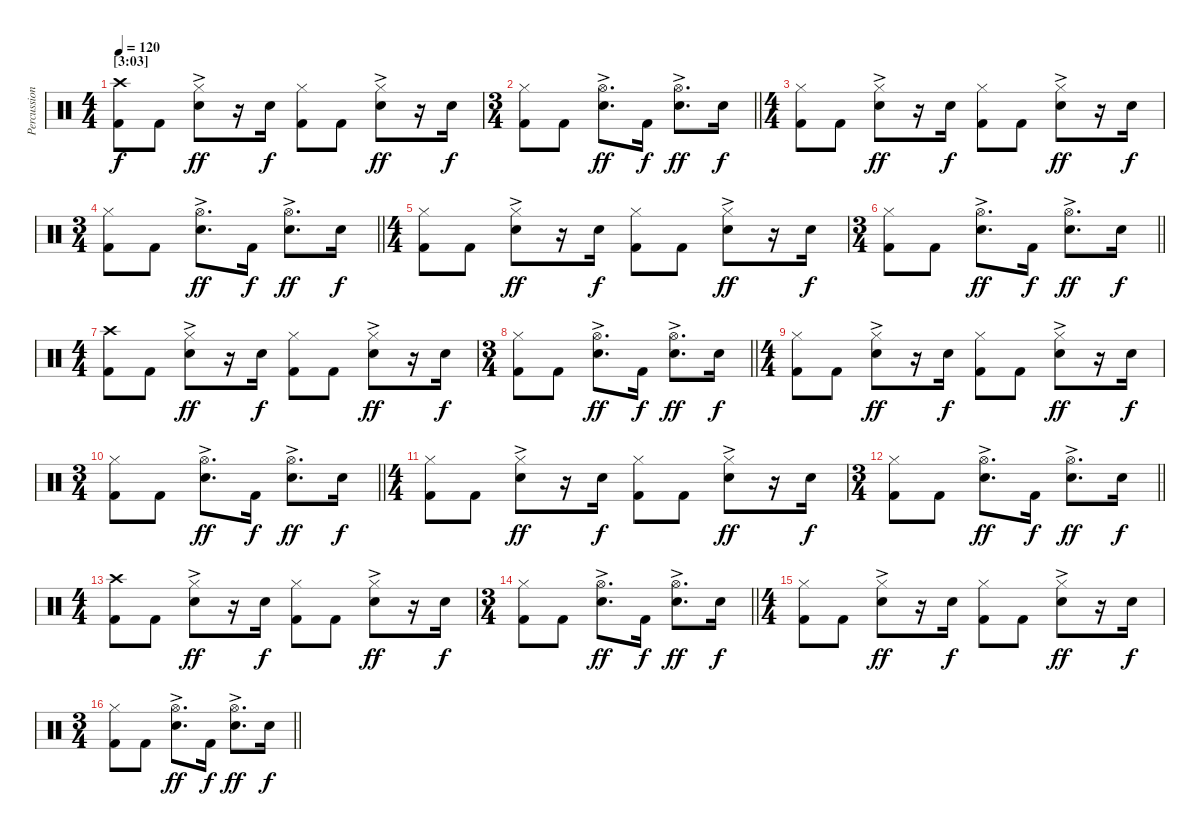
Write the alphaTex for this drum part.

\track ("Percussion" "Percussion") {instrument percussion}
\staff {score}
\articulation defaults
\ts (4 4)
\section ("" "[3:03]")
\tempo 120
\clef neutral
\ks c
("Crash high (hit)" "Kick (hit) 2").8{dy f} "Kick (hit) 2".8 ("Hi-Hat (closed)" "Electric Snare (hit)"{ac}).8{dy ff} r.16 "Electric Snare (hit)".16{dy f} ("Hi-Hat (closed)" "Kick (hit) 2").8 "Kick (hit) 2".8 ("Hi-Hat (closed)" "Electric Snare (hit)"{ac}).8{dy ff} r.16 "Electric Snare (hit)".16{dy f} |
\ts (3 4)
\barLineRight lightlight
("Hi-Hat (closed)" "Kick (hit) 2").8 "Kick (hit) 2".8 ("Hi-Hat (open)" "Electric Snare (hit)"{ac}).8{d dy ff} "Kick (hit) 2".16{dy f} ("Hi-Hat (open)" "Electric Snare (hit)"{ac}).8{d dy ff} "Electric Snare (hit)".16{dy f} |
\ts (4 4)
("Hi-Hat (closed)" "Kick (hit) 2").8 "Kick (hit) 2".8 ("Hi-Hat (closed)" "Electric Snare (hit)"{ac}).8{dy ff} r.16 "Electric Snare (hit)".16{dy f} ("Hi-Hat (closed)" "Kick (hit) 2").8 "Kick (hit) 2".8 ("Hi-Hat (closed)" "Electric Snare (hit)"{ac}).8{dy ff} r.16 "Electric Snare (hit)".16{dy f} |
\ts (3 4)
\barLineRight lightlight
("Hi-Hat (closed)" "Kick (hit) 2").8 "Kick (hit) 2".8 ("Hi-Hat (open)" "Electric Snare (hit)"{ac}).8{d dy ff} "Kick (hit) 2".16{dy f} ("Hi-Hat (open)" "Electric Snare (hit)"{ac}).8{d dy ff} "Electric Snare (hit)".16{dy f} |
\ts (4 4)
("Hi-Hat (closed)" "Kick (hit) 2").8 "Kick (hit) 2".8 ("Hi-Hat (closed)" "Electric Snare (hit)"{ac}).8{dy ff} r.16 "Electric Snare (hit)".16{dy f} ("Hi-Hat (closed)" "Kick (hit) 2").8 "Kick (hit) 2".8 ("Hi-Hat (closed)" "Electric Snare (hit)"{ac}).8{dy ff} r.16 "Electric Snare (hit)".16{dy f} |
\ts (3 4)
\barLineRight lightlight
("Hi-Hat (closed)" "Kick (hit) 2").8 "Kick (hit) 2".8 ("Hi-Hat (open)" "Electric Snare (hit)"{ac}).8{d dy ff} "Kick (hit) 2".16{dy f} ("Hi-Hat (open)" "Electric Snare (hit)"{ac}).8{d dy ff} "Electric Snare (hit)".16{dy f} |
\ts (4 4)
("Crash high (hit)" "Kick (hit) 2").8 "Kick (hit) 2".8 ("Hi-Hat (closed)" "Electric Snare (hit)"{ac}).8{dy ff} r.16 "Electric Snare (hit)".16{dy f} ("Hi-Hat (closed)" "Kick (hit) 2").8 "Kick (hit) 2".8 ("Hi-Hat (closed)" "Electric Snare (hit)"{ac}).8{dy ff} r.16 "Electric Snare (hit)".16{dy f} |
\ts (3 4)
\barLineRight lightlight
("Hi-Hat (closed)" "Kick (hit) 2").8 "Kick (hit) 2".8 ("Hi-Hat (open)" "Electric Snare (hit)"{ac}).8{d dy ff} "Kick (hit) 2".16{dy f} ("Hi-Hat (open)" "Electric Snare (hit)"{ac}).8{d dy ff} "Electric Snare (hit)".16{dy f} |
\ts (4 4)
("Hi-Hat (closed)" "Kick (hit) 2").8 "Kick (hit) 2".8 ("Hi-Hat (closed)" "Electric Snare (hit)"{ac}).8{dy ff} r.16 "Electric Snare (hit)".16{dy f} ("Hi-Hat (closed)" "Kick (hit) 2").8 "Kick (hit) 2".8 ("Hi-Hat (closed)" "Electric Snare (hit)"{ac}).8{dy ff} r.16 "Electric Snare (hit)".16{dy f} |
\ts (3 4)
\barLineRight lightlight
("Hi-Hat (closed)" "Kick (hit) 2").8 "Kick (hit) 2".8 ("Hi-Hat (open)" "Electric Snare (hit)"{ac}).8{d dy ff} "Kick (hit) 2".16{dy f} ("Hi-Hat (open)" "Electric Snare (hit)"{ac}).8{d dy ff} "Electric Snare (hit)".16{dy f} |
\ts (4 4)
("Hi-Hat (closed)" "Kick (hit) 2").8 "Kick (hit) 2".8 ("Hi-Hat (closed)" "Electric Snare (hit)"{ac}).8{dy ff} r.16 "Electric Snare (hit)".16{dy f} ("Hi-Hat (closed)" "Kick (hit) 2").8 "Kick (hit) 2".8 ("Hi-Hat (closed)" "Electric Snare (hit)"{ac}).8{dy ff} r.16 "Electric Snare (hit)".16{dy f} |
\ts (3 4)
\barLineRight lightlight
("Hi-Hat (closed)" "Kick (hit) 2").8 "Kick (hit) 2".8 ("Hi-Hat (open)" "Electric Snare (hit)"{ac}).8{d dy ff} "Kick (hit) 2".16{dy f} ("Hi-Hat (open)" "Electric Snare (hit)"{ac}).8{d dy ff} "Electric Snare (hit)".16{dy f} |
\ts (4 4)
("Crash high (hit)" "Kick (hit) 2").8 "Kick (hit) 2".8 ("Hi-Hat (closed)" "Electric Snare (hit)"{ac}).8{dy ff} r.16 "Electric Snare (hit)".16{dy f} ("Hi-Hat (closed)" "Kick (hit) 2").8 "Kick (hit) 2".8 ("Hi-Hat (closed)" "Electric Snare (hit)"{ac}).8{dy ff} r.16 "Electric Snare (hit)".16{dy f} |
\ts (3 4)
\barLineRight lightlight
("Hi-Hat (closed)" "Kick (hit) 2").8 "Kick (hit) 2".8 ("Hi-Hat (open)" "Electric Snare (hit)"{ac}).8{d dy ff} "Kick (hit) 2".16{dy f} ("Hi-Hat (open)" "Electric Snare (hit)"{ac}).8{d dy ff} "Electric Snare (hit)".16{dy f} |
\ts (4 4)
("Hi-Hat (closed)" "Kick (hit) 2").8 "Kick (hit) 2".8 ("Hi-Hat (closed)" "Electric Snare (hit)"{ac}).8{dy ff} r.16 "Electric Snare (hit)".16{dy f} ("Hi-Hat (closed)" "Kick (hit) 2").8 "Kick (hit) 2".8 ("Hi-Hat (closed)" "Electric Snare (hit)"{ac}).8{dy ff} r.16 "Electric Snare (hit)".16{dy f} |
\ts (3 4)
\barLineRight lightlight
("Hi-Hat (closed)" "Kick (hit) 2").8 "Kick (hit) 2".8 ("Hi-Hat (open)" "Electric Snare (hit)"{ac}).8{d dy ff} "Kick (hit) 2".16{dy f} ("Hi-Hat (open)" "Electric Snare (hit)"{ac}).8{d dy ff} "Electric Snare (hit)".16{dy f}
